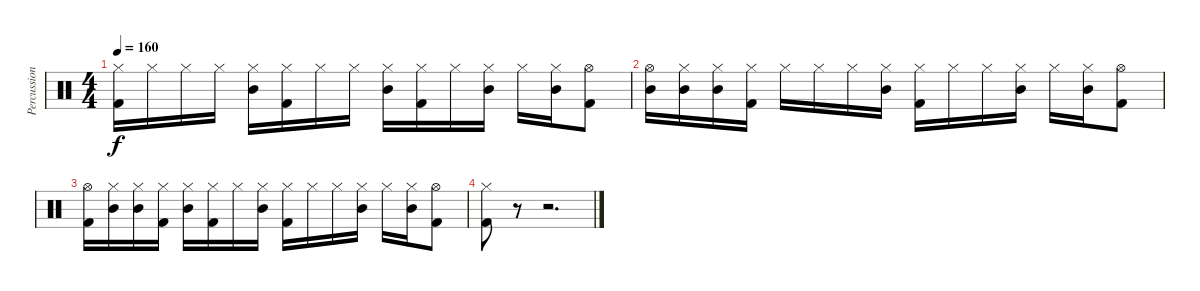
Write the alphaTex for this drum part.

\track ("Percussion" "Percussion") {instrument percussion}
\staff {score}
\articulation defaults
\ts (4 4)
\section ("" "")
\tempo 160
\clef neutral
\ks c
("Hi-Hat (closed)" "Kick (hit) 2").16{dy f} "Hi-Hat (closed)".16 "Hi-Hat (closed)".16 "Hi-Hat (closed)".16 ("Hi-Hat (closed)" "Mid Tom (hit)").16 ("Hi-Hat (closed)" "Kick (hit) 2").16 "Hi-Hat (closed)".16 "Hi-Hat (closed)".16 ("Hi-Hat (closed)" "Mid Tom (hit)").16 ("Hi-Hat (closed)" "Kick (hit) 2").16 "Hi-Hat (closed)".16 ("Hi-Hat (closed)" "Mid Tom (hit)").16 "Hi-Hat (closed)".16 ("Hi-Hat (closed)" "Mid Tom (hit)").16 ("Hi-Hat (open)" "Kick (hit) 2").8 |
("Hi-Hat (open)" "Mid Tom (hit)").16 ("Hi-Hat (closed)" "Mid Tom (hit)").16 ("Hi-Hat (closed)" "Mid Tom (hit)").16 ("Hi-Hat (closed)" "Kick (hit) 2").16 "Hi-Hat (closed)".16 "Hi-Hat (closed)".16 "Hi-Hat (closed)".16 ("Hi-Hat (closed)" "Mid Tom (hit)").16 ("Hi-Hat (closed)" "Kick (hit) 2").16 "Hi-Hat (closed)".16 "Hi-Hat (closed)".16 ("Hi-Hat (closed)" "Mid Tom (hit)").16 "Hi-Hat (closed)".16 ("Hi-Hat (closed)" "Mid Tom (hit)").16 ("Hi-Hat (open)" "Kick (hit) 2").8 |
("Hi-Hat (open)" "Kick (hit) 2").16 ("Hi-Hat (closed)" "Mid Tom (hit)").16 ("Hi-Hat (closed)" "Mid Tom (hit)").16 ("Hi-Hat (closed)" "Kick (hit) 2").16 ("Hi-Hat (closed)" "Mid Tom (hit)").16 ("Hi-Hat (closed)" "Kick (hit) 2").16 "Hi-Hat (closed)".16 ("Hi-Hat (closed)" "Mid Tom (hit)").16 ("Hi-Hat (closed)" "Kick (hit) 2").16 "Hi-Hat (closed)".16 "Hi-Hat (closed)".16 ("Hi-Hat (closed)" "Mid Tom (hit)").16 "Hi-Hat (closed)".16 ("Hi-Hat (closed)" "Mid Tom (hit)").16 ("Hi-Hat (open)" "Kick (hit) 2").8 |
("Hi-Hat (closed)" "Kick (hit) 2").8 r.8 r.2{d}
